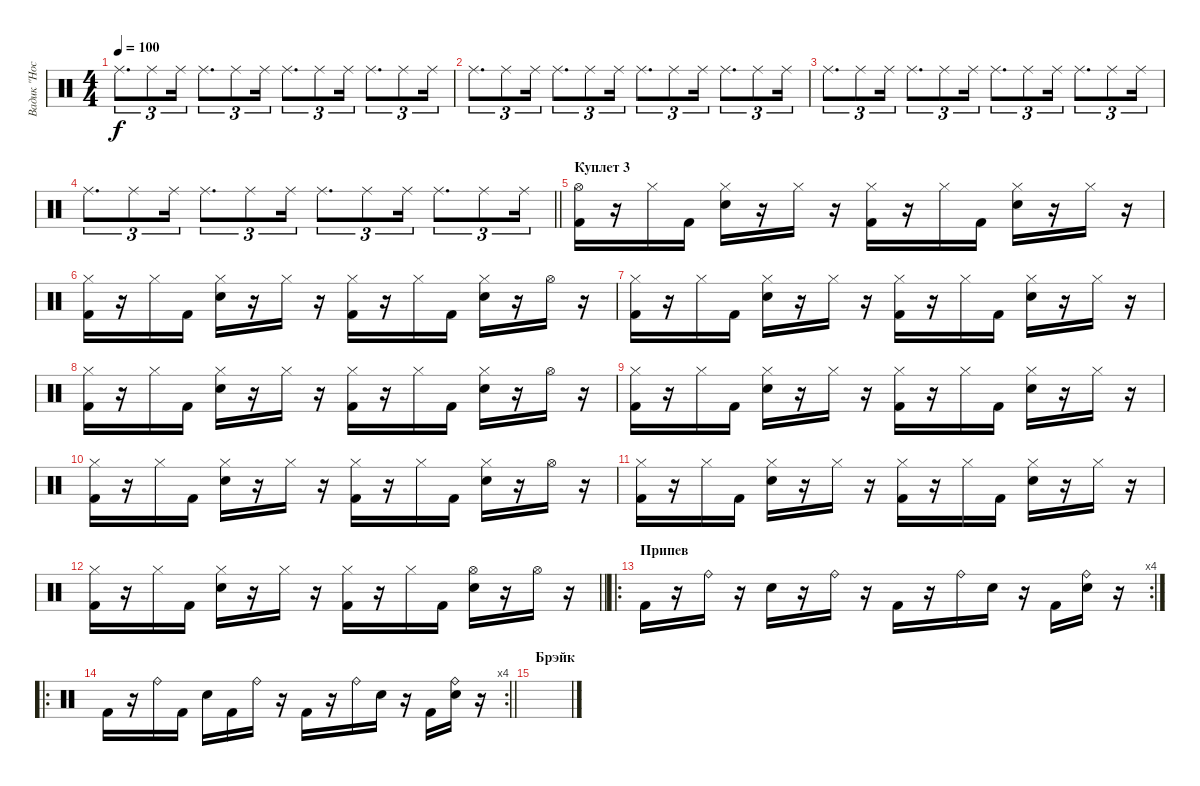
\track ("Вадик \"Нос\"" "Вадик \"Нос") {instrument percussion}
\staff {score}
\articulation defaults
\ts (4 4)
\tempo 100
\clef neutral
\ks c "Ride (middle)".8{d tu (3 2) dy f} "Ride (middle)".8{tu (3 2)} "Ride (middle)".16{tu (3 2)} "Ride (middle)".8{d tu (3 2)} "Ride (middle)".8{tu (3 2)} "Ride (middle)".16{tu (3 2)} "Ride (middle)".8{d tu (3 2)} "Ride (middle)".8{tu (3 2)} "Ride (middle)".16{tu (3 2)} "Ride (middle)".8{d tu (3 2)} "Ride (middle)".8{tu (3 2)} "Ride (middle)".16{tu (3 2)}
|
"Ride (middle)".8{d tu (3 2)} "Ride (middle)".8{tu (3 2)} "Ride (middle)".16{tu (3 2)} "Ride (middle)".8{d tu (3 2)} "Ride (middle)".8{tu (3 2)} "Ride (middle)".16{tu (3 2)} "Ride (middle)".8{d tu (3 2)} "Ride (middle)".8{tu (3 2)} "Ride (middle)".16{tu (3 2)} "Ride (middle)".8{d tu (3 2)} "Ride (middle)".8{tu (3 2)} "Ride (middle)".16{tu (3 2)} |
"Ride (middle)".8{d tu (3 2)} "Ride (middle)".8{tu (3 2)} "Ride (middle)".16{tu (3 2)} "Ride (middle)".8{d tu (3 2)} "Ride (middle)".8{tu (3 2)} "Ride (middle)".16{tu (3 2)} "Ride (middle)".8{d tu (3 2)} "Ride (middle)".8{tu (3 2)} "Ride (middle)".16{tu (3 2)} "Ride (middle)".8{d tu (3 2)} "Ride (middle)".8{tu (3 2)} "Ride (middle)".16{tu (3 2)} |
\barLineRight lightlight "Ride (middle)".8{d tu (3 2)} "Ride (middle)".8{tu (3 2)} "Ride (middle)".16{tu (3 2)} "Ride (middle)".8{d tu (3 2)} "Ride (middle)".8{tu (3 2)} "Ride (middle)".16{tu (3 2)} "Ride (middle)".8{d tu (3 2)} "Ride (middle)".8{tu (3 2)} "Ride (middle)".16{tu (3 2)} "Ride (middle)".8{d tu (3 2)} "Ride (middle)".8{tu (3 2)} "Ride (middle)".16{tu (3 2)}
|
\section ("" "Куплет 3")
("Hi-Hat (open)" "Kick (hit) 2").16 r.16 "Hi-Hat (closed)".16 "Kick (hit) 2".16 ("Hi-Hat (closed)" "Snare (hit) 2").16 r.16 "Hi-Hat (closed)".16 r.16 ("Hi-Hat (closed)" "Kick (hit) 2").16 r.16 "Hi-Hat (closed)".16 "Kick (hit) 2".16 ("Hi-Hat (closed)" "Snare (hit) 2").16 r.16 "Hi-Hat (closed)".16 r.16 |
("Hi-Hat (closed)" "Kick (hit) 2").16 r.16 "Hi-Hat (closed)".16 "Kick (hit) 2".16 ("Hi-Hat (closed)" "Snare (hit) 2").16 r.16 "Hi-Hat (closed)".16 r.16 ("Hi-Hat (closed)" "Kick (hit) 2").16 r.16 "Hi-Hat (closed)".16 "Kick (hit) 2".16 ("Hi-Hat (closed)" "Snare (hit) 2").16 r.16 "Hi-Hat (open)".16 r.16 |
("Hi-Hat (closed)" "Kick (hit) 2").16 r.16 "Hi-Hat (closed)".16 "Kick (hit) 2".16 ("Hi-Hat (closed)" "Snare (hit) 2").16 r.16 "Hi-Hat (closed)".16 r.16 ("Hi-Hat (closed)" "Kick (hit) 2").16 r.16 "Hi-Hat (closed)".16 "Kick (hit) 2".16 ("Hi-Hat (closed)" "Snare (hit) 2").16 r.16 "Hi-Hat (closed)".16 r.16 |
("Hi-Hat (closed)" "Kick (hit) 2").16 r.16 "Hi-Hat (closed)".16 "Kick (hit) 2".16 ("Hi-Hat (closed)" "Snare (hit) 2").16 r.16 "Hi-Hat (closed)".16 r.16 ("Hi-Hat (closed)" "Kick (hit) 2").16 r.16 "Hi-Hat (closed)".16 "Kick (hit) 2".16 ("Hi-Hat (closed)" "Snare (hit) 2").16 r.16 "Hi-Hat (open)".16 r.16 |
("Hi-Hat (closed)" "Kick (hit) 2").16 r.16 "Hi-Hat (closed)".16 "Kick (hit) 2".16 ("Hi-Hat (closed)" "Snare (hit) 2").16 r.16 "Hi-Hat (closed)".16 r.16 ("Hi-Hat (closed)" "Kick (hit) 2").16 r.16 "Hi-Hat (closed)".16 "Kick (hit) 2".16 ("Hi-Hat (closed)" "Snare (hit) 2").16 r.16 "Hi-Hat (closed)".16 r.16 |
("Hi-Hat (closed)" "Kick (hit) 2").16 r.16 "Hi-Hat (closed)".16 "Kick (hit) 2".16 ("Hi-Hat (closed)" "Snare (hit) 2").16 r.16 "Hi-Hat (closed)".16 r.16 ("Hi-Hat (closed)" "Kick (hit) 2").16 r.16 "Hi-Hat (closed)".16 "Kick (hit) 2".16 ("Hi-Hat (closed)" "Snare (hit) 2").16 r.16 "Hi-Hat (open)".16 r.16 |
("Hi-Hat (closed)" "Kick (hit) 2").16 r.16 "Hi-Hat (closed)".16 "Kick (hit) 2".16 ("Hi-Hat (closed)" "Snare (hit) 2").16 r.16 "Hi-Hat (closed)".16 r.16 ("Hi-Hat (closed)" "Kick (hit) 2").16 r.16 "Hi-Hat (closed)".16 "Kick (hit) 2".16 ("Hi-Hat (closed)" "Snare (hit) 2").16 r.16 "Hi-Hat (closed)".16 r.16 |
\barLineRight lightlight
("Hi-Hat (closed)" "Kick (hit) 2").16 r.16 "Hi-Hat (closed)".16 "Kick (hit) 2".16 ("Hi-Hat (closed)" "Snare (hit) 2").16 r.16 "Hi-Hat (closed)".16 r.16 ("Hi-Hat (closed)" "Kick (hit) 2").16 r.16 "Hi-Hat (closed)".16 "Kick (hit) 2".16 ("Hi-Hat (open)" "Snare (hit) 2").16 r.16 "Hi-Hat (open)".16 r.16 |
\ro
\rc 4
\section ("" "Припев")
"Kick (hit) 2".16 r.16 "Ride (bell)".16 r.16 "Snare (hit) 2".16 r.16 "Ride (bell)".16 r.16 "Kick (hit) 2".16 r.16 "Ride (bell)".16 "Snare (hit) 2".16 r.16 "Kick (hit) 2".16 ("Ride (bell)" "Snare (hit) 2").16 r.16 |
\ro
\rc 4
\barLineRight lightlight "Kick (hit) 2".16
r.16 "Ride (bell)".16 "Kick (hit) 2".16 "Snare (hit) 2".16 "Kick (hit) 2".16 "Ride (bell)".16 r.16 "Kick (hit) 2".16 r.16 "Ride (bell)".16 "Snare (hit) 2".16 r.16 "Kick (hit) 2".16 ("Ride (bell)" "Snare (hit) 2").16 r.16 |
\section ("" "Брэйк")
